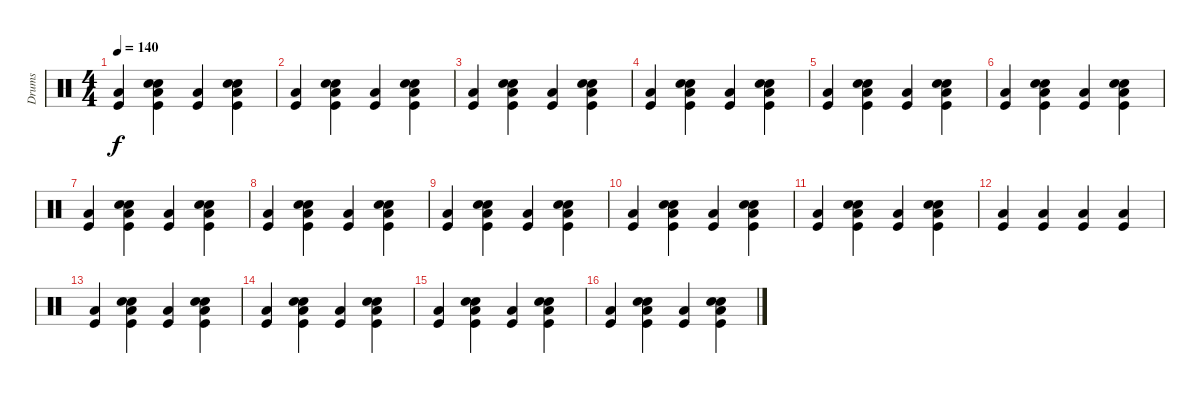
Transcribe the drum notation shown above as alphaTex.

\track ("Drums" "Drums") {instrument percussion}
\staff {score}
\articulation defaults
\ts (4 4)
\tempo 140
\clef neutral
\ks c
("Low Floor Tom (hit)" "Kick (hit)").4{dy f} ("Hand Clap (hit)" "Snare (hit) 2" "Low Floor Tom (hit)" "Kick (hit)").4 ("Low Floor Tom (hit)" "Kick (hit)").4 ("Hand Clap (hit)" "Snare (hit) 2" "Low Floor Tom (hit)" "Kick (hit)").4 |
("Low Floor Tom (hit)" "Kick (hit)").4 ("Hand Clap (hit)" "Snare (hit) 2" "Low Floor Tom (hit)" "Kick (hit)").4 ("Low Floor Tom (hit)" "Kick (hit)").4 ("Hand Clap (hit)" "Snare (hit) 2" "Low Floor Tom (hit)" "Kick (hit)").4 |
("Low Floor Tom (hit)" "Kick (hit)").4 ("Hand Clap (hit)" "Snare (hit) 2" "Low Floor Tom (hit)" "Kick (hit)").4 ("Low Floor Tom (hit)" "Kick (hit)").4 ("Hand Clap (hit)" "Snare (hit) 2" "Low Floor Tom (hit)" "Kick (hit)").4 |
("Low Floor Tom (hit)" "Kick (hit)").4 ("Hand Clap (hit)" "Snare (hit) 2" "Low Floor Tom (hit)" "Kick (hit)").4 ("Low Floor Tom (hit)" "Kick (hit)").4 ("Hand Clap (hit)" "Snare (hit) 2" "Low Floor Tom (hit)" "Kick (hit)").4 |
("Low Floor Tom (hit)" "Kick (hit)").4 ("Hand Clap (hit)" "Snare (hit) 2" "Low Floor Tom (hit)" "Kick (hit)").4 ("Low Floor Tom (hit)" "Kick (hit)").4 ("Hand Clap (hit)" "Snare (hit) 2" "Low Floor Tom (hit)" "Kick (hit)").4 |
("Low Floor Tom (hit)" "Kick (hit)").4 ("Hand Clap (hit)" "Snare (hit) 2" "Low Floor Tom (hit)" "Kick (hit)").4 ("Low Floor Tom (hit)" "Kick (hit)").4 ("Hand Clap (hit)" "Snare (hit) 2" "Low Floor Tom (hit)" "Kick (hit)").4 |
("Low Floor Tom (hit)" "Kick (hit)").4 ("Hand Clap (hit)" "Snare (hit) 2" "Low Floor Tom (hit)" "Kick (hit)").4 ("Low Floor Tom (hit)" "Kick (hit)").4 ("Hand Clap (hit)" "Snare (hit) 2" "Low Floor Tom (hit)" "Kick (hit)").4 |
("Low Floor Tom (hit)" "Kick (hit)").4 ("Hand Clap (hit)" "Snare (hit) 2" "Low Floor Tom (hit)" "Kick (hit)").4 ("Low Floor Tom (hit)" "Kick (hit)").4 ("Hand Clap (hit)" "Snare (hit) 2" "Low Floor Tom (hit)" "Kick (hit)").4 |
("Low Floor Tom (hit)" "Kick (hit)").4 ("Hand Clap (hit)" "Snare (hit) 2" "Low Floor Tom (hit)" "Kick (hit)").4 ("Low Floor Tom (hit)" "Kick (hit)").4 ("Hand Clap (hit)" "Snare (hit) 2" "Low Floor Tom (hit)" "Kick (hit)").4 |
("Low Floor Tom (hit)" "Kick (hit)").4 ("Hand Clap (hit)" "Snare (hit) 2" "Low Floor Tom (hit)" "Kick (hit)").4 ("Low Floor Tom (hit)" "Kick (hit)").4 ("Hand Clap (hit)" "Snare (hit) 2" "Low Floor Tom (hit)" "Kick (hit)").4 |
("Low Floor Tom (hit)" "Kick (hit)").4 ("Hand Clap (hit)" "Snare (hit) 2" "Low Floor Tom (hit)" "Kick (hit)").4 ("Low Floor Tom (hit)" "Kick (hit)").4 ("Hand Clap (hit)" "Snare (hit) 2" "Low Floor Tom (hit)" "Kick (hit)").4 |
("Low Floor Tom (hit)" "Kick (hit)").4 ("Low Floor Tom (hit)" "Kick (hit)").4 ("Low Floor Tom (hit)" "Kick (hit)").4 ("Low Floor Tom (hit)" "Kick (hit)").4 |
("Low Floor Tom (hit)" "Kick (hit)").4 ("Hand Clap (hit)" "Snare (hit) 2" "Low Floor Tom (hit)" "Kick (hit)").4 ("Low Floor Tom (hit)" "Kick (hit)").4 ("Hand Clap (hit)" "Snare (hit) 2" "Low Floor Tom (hit)" "Kick (hit)").4 |
("Low Floor Tom (hit)" "Kick (hit)").4 ("Hand Clap (hit)" "Snare (hit) 2" "Low Floor Tom (hit)" "Kick (hit)").4 ("Low Floor Tom (hit)" "Kick (hit)").4 ("Hand Clap (hit)" "Snare (hit) 2" "Low Floor Tom (hit)" "Kick (hit)").4 |
("Low Floor Tom (hit)" "Kick (hit)").4 ("Hand Clap (hit)" "Snare (hit) 2" "Low Floor Tom (hit)" "Kick (hit)").4 ("Low Floor Tom (hit)" "Kick (hit)").4 ("Hand Clap (hit)" "Snare (hit) 2" "Low Floor Tom (hit)" "Kick (hit)").4 |
("Low Floor Tom (hit)" "Kick (hit)").4 ("Hand Clap (hit)" "Snare (hit) 2" "Low Floor Tom (hit)" "Kick (hit)").4 ("Low Floor Tom (hit)" "Kick (hit)").4 ("Hand Clap (hit)" "Snare (hit) 2" "Low Floor Tom (hit)" "Kick (hit)").4
